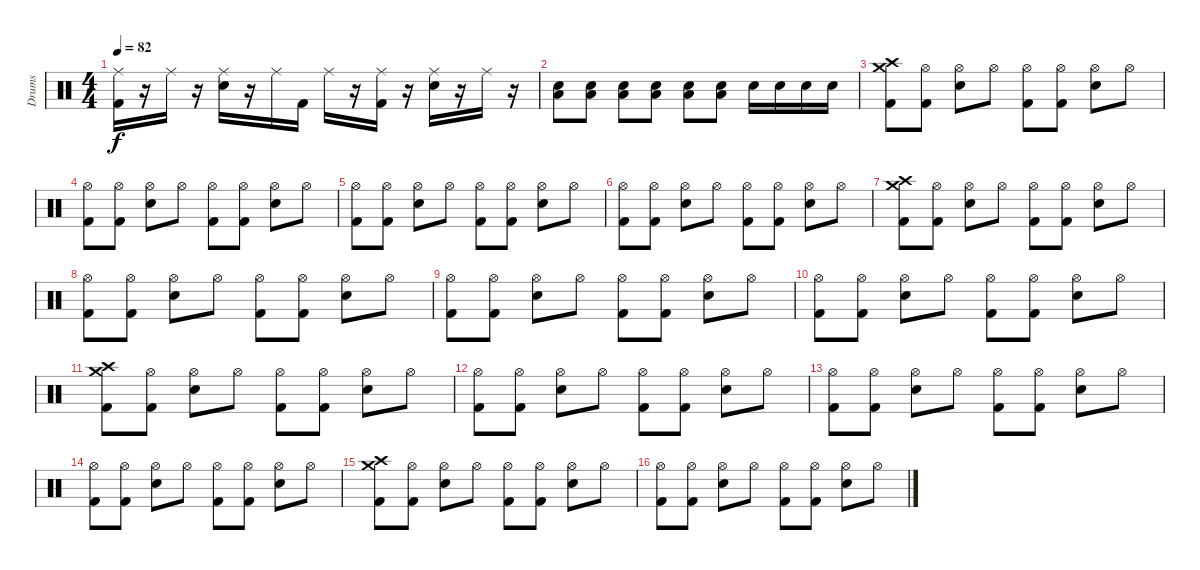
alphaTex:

\track ("Drums" "Drums") {instrument percussion}
\staff {score}
\articulation defaults
\ts (4 4)
\tempo 82
\clef neutral
\ks c
("Ride (middle)" "Kick (hit) 2").16{dy f} r.16 "Ride (middle)".16 r.16 ("Ride (middle)" "Electric Snare (hit)").16 r.16 "Ride (middle)".16 "Kick (hit) 2".16 "Ride (middle)".16 r.16 ("Ride (middle)" "Kick (hit) 2").16 r.16 ("Ride (middle)" "Electric Snare (hit)").16 r.16 "Ride (middle)".16 r.16 |
("Low Floor Tom (hit)" "Electric Snare (hit)").8 ("Low Floor Tom (hit)" "Electric Snare (hit)").8 ("Low Floor Tom (hit)" "Electric Snare (hit)").8 ("Low Floor Tom (hit)" "Electric Snare (hit)").8 ("Low Floor Tom (hit)" "Electric Snare (hit)").8 ("Low Floor Tom (hit)" "Electric Snare (hit)").8 "Electric Snare (hit)".16 "Electric Snare (hit)".16 "Electric Snare (hit)".16 "Electric Snare (hit)".16 |
("Crash high (hit)" "Kick (hit) 2" "Crash medium (hit)").8 ("Hi-Hat (open)" "Kick (hit) 2").8 ("Hi-Hat (open)" "Electric Snare (hit)").8 "Hi-Hat (open)".8 ("Hi-Hat (open)" "Kick (hit) 2").8 ("Hi-Hat (open)" "Kick (hit) 2").8 ("Hi-Hat (open)" "Electric Snare (hit)").8 "Hi-Hat (open)".8 |
("Hi-Hat (open)" "Kick (hit) 2").8 ("Hi-Hat (open)" "Kick (hit) 2").8 ("Hi-Hat (open)" "Electric Snare (hit)").8 "Hi-Hat (open)".8 ("Hi-Hat (open)" "Kick (hit) 2").8 ("Hi-Hat (open)" "Kick (hit) 2").8 ("Hi-Hat (open)" "Electric Snare (hit)").8 "Hi-Hat (open)".8 |
("Hi-Hat (open)" "Kick (hit) 2").8 ("Hi-Hat (open)" "Kick (hit) 2").8 ("Hi-Hat (open)" "Electric Snare (hit)").8 "Hi-Hat (open)".8 ("Hi-Hat (open)" "Kick (hit) 2").8 ("Hi-Hat (open)" "Kick (hit) 2").8 ("Hi-Hat (open)" "Electric Snare (hit)").8 "Hi-Hat (open)".8 |
("Hi-Hat (open)" "Kick (hit) 2").8 ("Hi-Hat (open)" "Kick (hit) 2").8 ("Hi-Hat (open)" "Electric Snare (hit)").8 "Hi-Hat (open)".8 ("Hi-Hat (open)" "Kick (hit) 2").8 ("Hi-Hat (open)" "Kick (hit) 2").8 ("Hi-Hat (open)" "Electric Snare (hit)").8 "Hi-Hat (open)".8 |
("Crash high (hit)" "Kick (hit) 2" "Crash medium (hit)").8 ("Hi-Hat (open)" "Kick (hit) 2").8 ("Hi-Hat (open)" "Electric Snare (hit)").8 "Hi-Hat (open)".8 ("Hi-Hat (open)" "Kick (hit) 2").8 ("Hi-Hat (open)" "Kick (hit) 2").8 ("Hi-Hat (open)" "Electric Snare (hit)").8 "Hi-Hat (open)".8 |
("Hi-Hat (open)" "Kick (hit) 2").8 ("Hi-Hat (open)" "Kick (hit) 2").8 ("Hi-Hat (open)" "Electric Snare (hit)").8 "Hi-Hat (open)".8 ("Hi-Hat (open)" "Kick (hit) 2").8 ("Hi-Hat (open)" "Kick (hit) 2").8 ("Hi-Hat (open)" "Electric Snare (hit)").8 "Hi-Hat (open)".8 |
("Hi-Hat (open)" "Kick (hit) 2").8 ("Hi-Hat (open)" "Kick (hit) 2").8 ("Hi-Hat (open)" "Electric Snare (hit)").8 "Hi-Hat (open)".8 ("Hi-Hat (open)" "Kick (hit) 2").8 ("Hi-Hat (open)" "Kick (hit) 2").8 ("Hi-Hat (open)" "Electric Snare (hit)").8 "Hi-Hat (open)".8 |
("Hi-Hat (open)" "Kick (hit) 2").8 ("Hi-Hat (open)" "Kick (hit) 2").8 ("Hi-Hat (open)" "Electric Snare (hit)").8 "Hi-Hat (open)".8 ("Hi-Hat (open)" "Kick (hit) 2").8 ("Hi-Hat (open)" "Kick (hit) 2").8 ("Hi-Hat (open)" "Electric Snare (hit)").8 "Hi-Hat (open)".8 |
("Crash high (hit)" "Kick (hit) 2" "Crash medium (hit)").8 ("Hi-Hat (open)" "Kick (hit) 2").8 ("Hi-Hat (open)" "Electric Snare (hit)").8 "Hi-Hat (open)".8 ("Hi-Hat (open)" "Kick (hit) 2").8 ("Hi-Hat (open)" "Kick (hit) 2").8 ("Hi-Hat (open)" "Electric Snare (hit)").8 "Hi-Hat (open)".8 |
("Hi-Hat (open)" "Kick (hit) 2").8 ("Hi-Hat (open)" "Kick (hit) 2").8 ("Hi-Hat (open)" "Electric Snare (hit)").8 "Hi-Hat (open)".8 ("Hi-Hat (open)" "Kick (hit) 2").8 ("Hi-Hat (open)" "Kick (hit) 2").8 ("Hi-Hat (open)" "Electric Snare (hit)").8 "Hi-Hat (open)".8 |
("Hi-Hat (open)" "Kick (hit) 2").8 ("Hi-Hat (open)" "Kick (hit) 2").8 ("Hi-Hat (open)" "Electric Snare (hit)").8 "Hi-Hat (open)".8 ("Hi-Hat (open)" "Kick (hit) 2").8 ("Hi-Hat (open)" "Kick (hit) 2").8 ("Hi-Hat (open)" "Electric Snare (hit)").8 "Hi-Hat (open)".8 |
("Hi-Hat (open)" "Kick (hit) 2").8 ("Hi-Hat (open)" "Kick (hit) 2").8 ("Hi-Hat (open)" "Electric Snare (hit)").8 "Hi-Hat (open)".8 ("Hi-Hat (open)" "Kick (hit) 2").8 ("Hi-Hat (open)" "Kick (hit) 2").8 ("Hi-Hat (open)" "Electric Snare (hit)").8 "Hi-Hat (open)".8 |
("Crash high (hit)" "Kick (hit) 2" "Crash medium (hit)").8 ("Hi-Hat (open)" "Kick (hit) 2").8 ("Hi-Hat (open)" "Electric Snare (hit)").8 "Hi-Hat (open)".8 ("Hi-Hat (open)" "Kick (hit) 2").8 ("Hi-Hat (open)" "Kick (hit) 2").8 ("Hi-Hat (open)" "Electric Snare (hit)").8 "Hi-Hat (open)".8 |
("Hi-Hat (open)" "Kick (hit) 2").8 ("Hi-Hat (open)" "Kick (hit) 2").8 ("Hi-Hat (open)" "Electric Snare (hit)").8 "Hi-Hat (open)".8 ("Hi-Hat (open)" "Kick (hit) 2").8 ("Hi-Hat (open)" "Kick (hit) 2").8 ("Hi-Hat (open)" "Electric Snare (hit)").8 "Hi-Hat (open)".8
